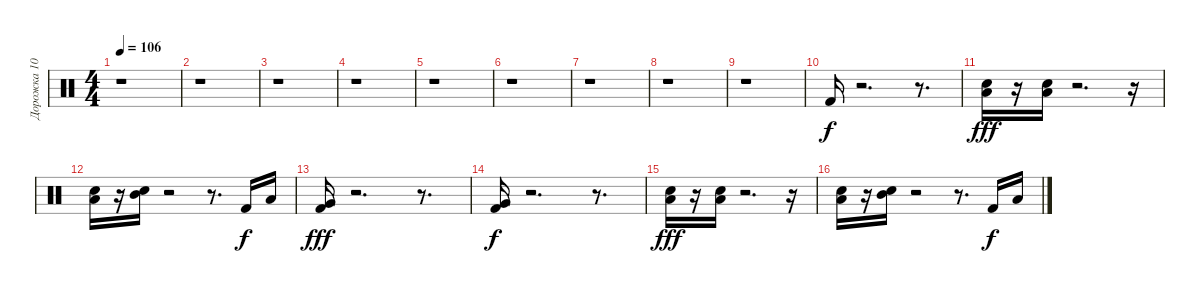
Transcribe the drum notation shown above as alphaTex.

\track ("Дорожка 10" "Дорожка 10") {instrument percussion}
\staff {score}
\articulation defaults
\ts (4 4)
\tempo 106
\clef neutral
\ks c
r.1{dy f} |
r.1 |
r.1 |
r.1 |
r.1 |
r.1 |
r.1 |
r.1 |
r.1 |
"Kick (hit) 2".16 r.2{d} r.8{d} |
("Snare (hit) 2" "Low Tom (hit)").16{dy fff} r.16 ("Snare (hit) 2" "Low Tom (hit)").16 r.2{d} r.16 |
("Snare (hit) 2" "Low Tom (hit)").16 r.16 ("Snare (hit) 2" "Mid Tom (hit)").16 r.2 r.8{d} "Kick (hit) 2".16{dy f} "Low Tom (hit)".16 |
("Kick (hit) 2" "Very Low Tom (hit)").16{dy fff} r.2{d} r.8{d} |
("Kick (hit) 2" "Very Low Tom (hit)").16{dy f} r.2{d} r.8{d} |
("Snare (hit) 2" "Low Tom (hit)").16{dy fff} r.16 ("Snare (hit) 2" "Low Tom (hit)").16 r.2{d} r.16 |
("Snare (hit) 2" "Low Tom (hit)").16 r.16 ("Snare (hit) 2" "Mid Tom (hit)").16 r.2 r.8{d} "Kick (hit) 2".16{dy f} "Low Tom (hit)".16
